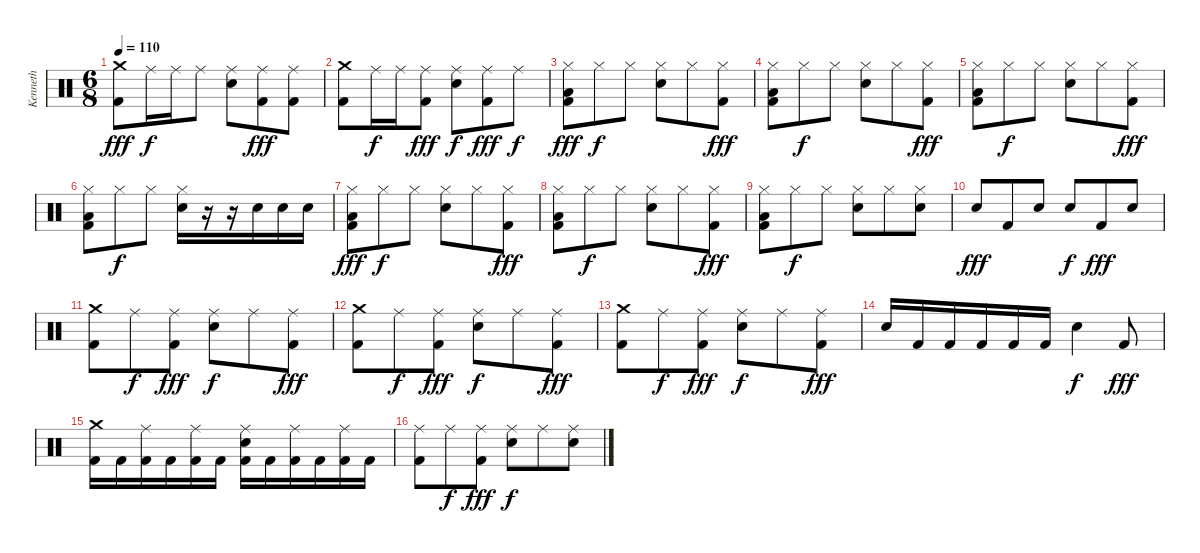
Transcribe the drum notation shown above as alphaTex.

\track ("Kenneth" "Kenneth") {instrument percussion}
\staff {score}
\articulation defaults
\ts (6 8)
\tempo 110
\clef neutral
\ks c
("Crash medium (hit)" "Kick (hit) 2").8{dy fff} "Ride (middle)".16{dy f} "Ride (middle)".16 "Ride (middle)".8 ("Ride (middle)" "Snare (hit) 2").8 ("Ride (middle)" "Kick (hit) 2").8{dy fff} ("Ride (middle)" "Kick (hit) 2").8 |
("Crash medium (hit)" "Kick (hit) 2").8 "Ride (middle)".16{dy f} "Ride (middle)".16 ("Ride (middle)" "Kick (hit) 2").8{dy fff} ("Ride (middle)" "Snare (hit) 2").8{dy f} ("Ride (middle)" "Kick (hit) 2").8{dy fff} "Ride (middle)".8{dy f} |
("Hi-Hat (closed)" "Low Tom (hit)" "Kick (hit) 2").8{dy fff} "Hi-Hat (closed)".8{dy f} "Hi-Hat (closed)".8 ("Hi-Hat (closed)" "Electric Snare (hit)").8 "Hi-Hat (closed)".8 ("Hi-Hat (closed)" "Kick (hit) 2").8{dy fff} |
("Hi-Hat (closed)" "Low Tom (hit)" "Kick (hit) 2").8 "Hi-Hat (closed)".8{dy f} "Hi-Hat (closed)".8 ("Hi-Hat (closed)" "Electric Snare (hit)").8 "Hi-Hat (closed)".8 ("Hi-Hat (closed)" "Kick (hit) 2").8{dy fff} |
("Hi-Hat (closed)" "Low Tom (hit)" "Kick (hit) 2").8 "Hi-Hat (closed)".8{dy f} "Hi-Hat (closed)".8 ("Hi-Hat (closed)" "Electric Snare (hit)").8 "Hi-Hat (closed)".8 ("Hi-Hat (closed)" "Kick (hit) 2").8{dy fff} |
("Hi-Hat (closed)" "Low Tom (hit)" "Kick (hit) 2").8 "Hi-Hat (closed)".8{dy f} "Hi-Hat (closed)".8 ("Hi-Hat (closed)" "Electric Snare (hit)").16 r.16 r.16 "Electric Snare (hit)".16 "Electric Snare (hit)".16 "Electric Snare (hit)".16 |
("Hi-Hat (closed)" "Low Tom (hit)" "Kick (hit) 2").8{dy fff} "Hi-Hat (closed)".8{dy f} "Hi-Hat (closed)".8 ("Hi-Hat (closed)" "Electric Snare (hit)").8 "Hi-Hat (closed)".8 ("Hi-Hat (closed)" "Kick (hit) 2").8{dy fff} |
("Hi-Hat (closed)" "Low Tom (hit)" "Kick (hit) 2").8 "Hi-Hat (closed)".8{dy f} "Hi-Hat (closed)".8 ("Hi-Hat (closed)" "Electric Snare (hit)").8 "Hi-Hat (closed)".8 ("Hi-Hat (closed)" "Kick (hit) 2").8{dy fff} |
("Hi-Hat (closed)" "Low Tom (hit)" "Kick (hit) 2").8 "Hi-Hat (closed)".8{dy f} "Hi-Hat (closed)".8 ("Hi-Hat (closed)" "Electric Snare (hit)").8 "Hi-Hat (closed)".8 ("Hi-Hat (closed)" "Electric Snare (hit)").8 |
"Electric Snare (hit)".8{dy fff} "Kick (hit) 2".8 "Electric Snare (hit)".8 "Electric Snare (hit)".8{dy f} "Kick (hit) 2".8{dy fff} "Electric Snare (hit)".8 |
("Crash medium (hit)" "Kick (hit) 2").8 "Ride (middle)".8{dy f} ("Ride (middle)" "Kick (hit) 2").8{dy fff} ("Ride (middle)" "Electric Snare (hit)").8{dy f} "Ride (middle)".8 ("Ride (middle)" "Kick (hit) 2").8{dy fff} |
("Crash medium (hit)" "Kick (hit) 2").8 "Ride (middle)".8{dy f} ("Ride (middle)" "Kick (hit) 2").8{dy fff} ("Ride (middle)" "Electric Snare (hit)").8{dy f} "Ride (middle)".8 ("Ride (middle)" "Kick (hit) 2").8{dy fff} |
("Crash medium (hit)" "Kick (hit) 2").8 "Ride (middle)".8{dy f} ("Ride (middle)" "Kick (hit) 2").8{dy fff} ("Ride (middle)" "Electric Snare (hit)").8{dy f} "Ride (middle)".8 ("Ride (middle)" "Kick (hit) 2").8{dy fff} |
"Electric Snare (hit)".16 "Kick (hit) 2".16 "Kick (hit) 2".16 "Kick (hit) 2".16 "Kick (hit) 2".16 "Kick (hit) 2".16 "Electric Snare (hit)".4{dy f} "Kick (hit) 2".8{dy fff} |
("Crash medium (hit)" "Kick (hit) 2").16 "Kick (hit) 2".16 ("Ride (middle)" "Kick (hit) 2").16 "Kick (hit) 2".16 ("Ride (middle)" "Kick (hit) 2").16 "Kick (hit) 2".16 ("Ride (middle)" "Electric Snare (hit)" "Kick (hit) 2").16 "Kick (hit) 2".16 ("Ride (middle)" "Kick (hit) 2").16 "Kick (hit) 2".16 ("Ride (middle)" "Kick (hit) 2").16 "Kick (hit) 2".16 |
("Ride (middle)" "Kick (hit) 2").8 "Ride (middle)".8{dy f} ("Ride (middle)" "Kick (hit) 2").8{dy fff} ("Ride (middle)" "Electric Snare (hit)").8{dy f} "Ride (middle)".8 ("Ride (middle)" "Electric Snare (hit)").8
